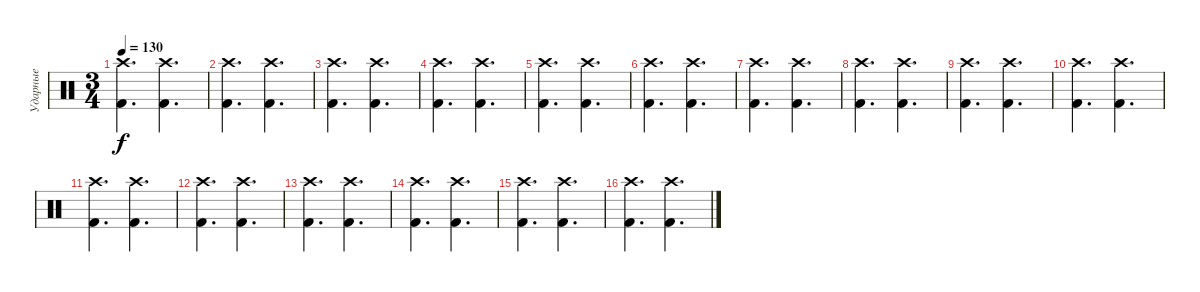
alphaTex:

\track ("Ударные" "Ударные") {instrument percussion}
\staff {score}
\articulation defaults
\ts (3 4)
\tempo 130
\clef neutral
\ks c
("Crash high (hit)" "Kick (hit) 2").4{d dy f} ("Crash high (hit)" "Kick (hit) 2").4{d} |
("Crash high (hit)" "Kick (hit) 2").4{d} ("Crash high (hit)" "Kick (hit) 2").4{d} |
("Crash high (hit)" "Kick (hit) 2").4{d} ("Crash high (hit)" "Kick (hit) 2").4{d} |
("Crash high (hit)" "Kick (hit) 2").4{d} ("Crash high (hit)" "Kick (hit) 2").4{d} |
("Crash high (hit)" "Kick (hit) 2").4{d} ("Crash high (hit)" "Kick (hit) 2").4{d} |
("Crash high (hit)" "Kick (hit) 2").4{d} ("Crash high (hit)" "Kick (hit) 2").4{d} |
("Crash high (hit)" "Kick (hit) 2").4{d} ("Crash high (hit)" "Kick (hit) 2").4{d} |
("Crash high (hit)" "Kick (hit) 2").4{d} ("Crash high (hit)" "Kick (hit) 2").4{d} |
("Crash high (hit)" "Kick (hit) 2").4{d} ("Crash high (hit)" "Kick (hit) 2").4{d} |
("Crash high (hit)" "Kick (hit) 2").4{d} ("Crash high (hit)" "Kick (hit) 2").4{d} |
("Crash high (hit)" "Kick (hit) 2").4{d} ("Crash high (hit)" "Kick (hit) 2").4{d} |
("Crash high (hit)" "Kick (hit) 2").4{d} ("Crash high (hit)" "Kick (hit) 2").4{d} |
("Crash high (hit)" "Kick (hit) 2").4{d} ("Crash high (hit)" "Kick (hit) 2").4{d} |
("Crash high (hit)" "Kick (hit) 2").4{d} ("Crash high (hit)" "Kick (hit) 2").4{d} |
("Crash high (hit)" "Kick (hit) 2").4{d} ("Crash high (hit)" "Kick (hit) 2").4{d} |
("Crash high (hit)" "Kick (hit) 2").4{d} ("Crash high (hit)" "Kick (hit) 2").4{d}
